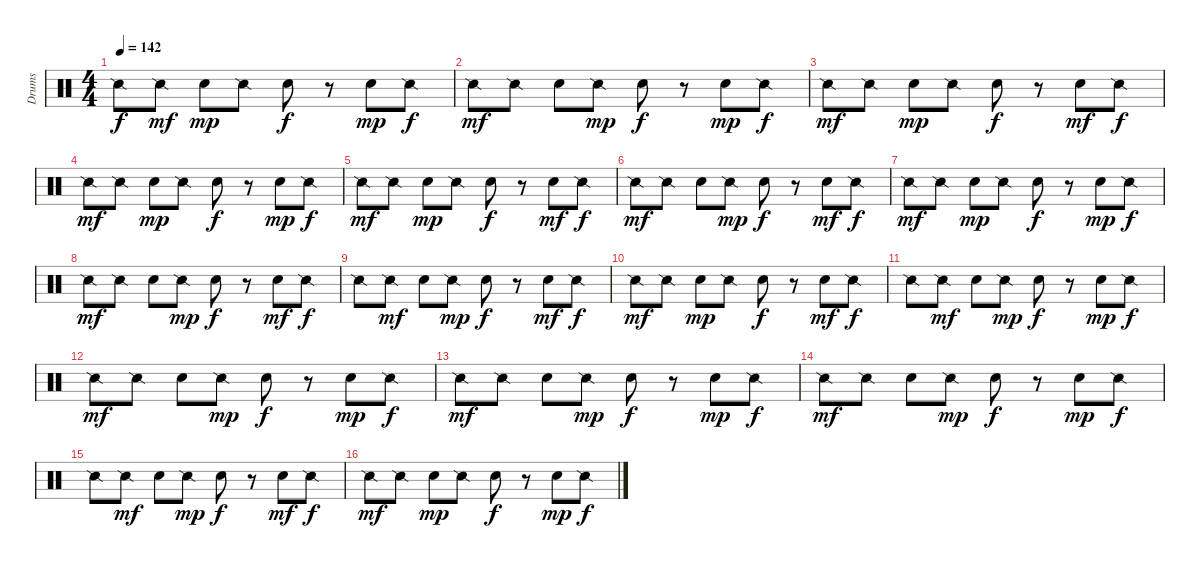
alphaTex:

\track ("Drums" "Drums") {instrument percussion}
\staff {score}
\articulation defaults
\ts (4 4)
\tempo 142
\clef neutral
\ks c "Snare (side stick) 2".8{dy f} "Snare (side stick) 2".8{dy mf} "Electric Snare (hit)".8{dy mp} "Snare (side stick) 2".8 "Electric Snare (hit)".8{dy f}
r.8 "Electric Snare (hit)".8{dy mp} "Snare (side stick) 2".8{dy f} |
"Snare (side stick) 2".8{dy mf} "Snare (side stick) 2".8 "Electric Snare (hit)".8 "Snare (side stick) 2".8{dy mp} "Electric Snare (hit)".8{dy f} r.8 "Electric Snare (hit)".8{dy mp} "Snare (side stick) 2".8{dy f} |
"Snare (side stick) 2".8{dy mf} "Snare (side stick) 2".8 "Electric Snare (hit)".8{dy mp} "Snare (side stick) 2".8 "Electric Snare (hit)".8{dy f} r.8 "Electric Snare (hit)".8{dy mf} "Snare (side stick) 2".8{dy f} |
"Snare (side stick) 2".8{dy mf} "Snare (side stick) 2".8 "Electric Snare (hit)".8{dy mp} "Snare (side stick) 2".8 "Electric Snare (hit)".8{dy f} r.8 "Electric Snare (hit)".8{dy mp} "Snare (side stick) 2".8{dy f} |
"Snare (side stick) 2".8{dy mf} "Snare (side stick) 2".8 "Electric Snare (hit)".8{dy mp} "Snare (side stick) 2".8 "Electric Snare (hit)".8{dy f} r.8 "Electric Snare (hit)".8{dy mf} "Snare (side stick) 2".8{dy f} |
"Snare (side stick) 2".8{dy mf} "Snare (side stick) 2".8 "Electric Snare (hit)".8 "Snare (side stick) 2".8{dy mp} "Electric Snare (hit)".8{dy f} r.8 "Electric Snare (hit)".8{dy mf} "Snare (side stick) 2".8{dy f} |
"Snare (side stick) 2".8{dy mf} "Snare (side stick) 2".8 "Electric Snare (hit)".8{dy mp} "Snare (side stick) 2".8 "Electric Snare (hit)".8{dy f} r.8 "Electric Snare (hit)".8{dy mp} "Snare (side stick) 2".8{dy f} |
"Snare (side stick) 2".8{dy mf} "Snare (side stick) 2".8 "Electric Snare (hit)".8 "Snare (side stick) 2".8{dy mp} "Electric Snare (hit)".8{dy f} r.8 "Electric Snare (hit)".8{dy mf} "Snare (side stick) 2".8{dy f} |
"Snare (side stick) 2".8 "Snare (side stick) 2".8{dy mf} "Electric Snare (hit)".8 "Snare (side stick) 2".8{dy mp} "Electric Snare (hit)".8{dy f} r.8 "Electric Snare (hit)".8{dy mf} "Snare (side stick) 2".8{dy f} |
"Snare (side stick) 2".8{dy mf} "Snare (side stick) 2".8 "Electric Snare (hit)".8{dy mp} "Snare (side stick) 2".8 "Electric Snare (hit)".8{dy f} r.8 "Electric Snare (hit)".8{dy mf} "Snare (side stick) 2".8{dy f} |
"Snare (side stick) 2".8 "Snare (side stick) 2".8{dy mf} "Electric Snare (hit)".8 "Snare (side stick) 2".8{dy mp} "Electric Snare (hit)".8{dy f} r.8 "Electric Snare (hit)".8{dy mp} "Snare (side stick) 2".8{dy f} |
"Snare (side stick) 2".8{dy mf} "Snare (side stick) 2".8 "Electric Snare (hit)".8 "Snare (side stick) 2".8{dy mp} "Electric Snare (hit)".8{dy f} r.8 "Electric Snare (hit)".8{dy mp} "Snare (side stick) 2".8{dy f} |
"Snare (side stick) 2".8{dy mf} "Snare (side stick) 2".8 "Electric Snare (hit)".8 "Snare (side stick) 2".8{dy mp} "Electric Snare (hit)".8{dy f} r.8 "Electric Snare (hit)".8{dy mp} "Snare (side stick) 2".8{dy f} |
"Snare (side stick) 2".8{dy mf} "Snare (side stick) 2".8 "Electric Snare (hit)".8 "Snare (side stick) 2".8{dy mp} "Electric Snare (hit)".8{dy f} r.8 "Electric Snare (hit)".8{dy mp} "Snare (side stick) 2".8{dy f} |
"Snare (side stick) 2".8 "Snare (side stick) 2".8{dy mf} "Electric Snare (hit)".8 "Snare (side stick) 2".8{dy mp} "Electric Snare (hit)".8{dy f} r.8 "Electric Snare (hit)".8{dy mf} "Snare (side stick) 2".8{dy f} |
"Snare (side stick) 2".8{dy mf} "Snare (side stick) 2".8 "Electric Snare (hit)".8{dy mp} "Snare (side stick) 2".8 "Electric Snare (hit)".8{dy f} r.8 "Electric Snare (hit)".8{dy mp} "Snare (side stick) 2".8{dy f}
